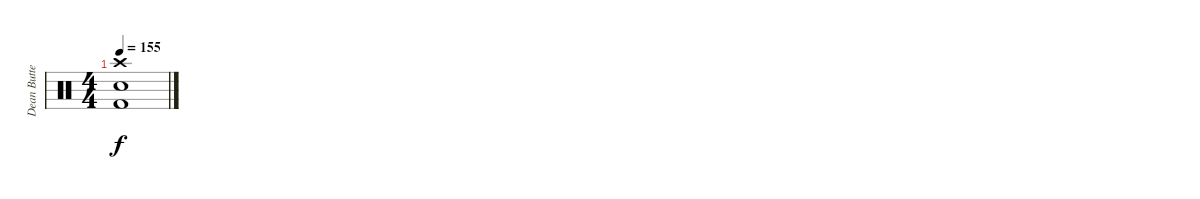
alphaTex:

\track ("Dean Butterworth [Drums]" "Dean Butte") {solo instrument percussion}
\staff {score}
\articulation defaults
\ts (4 4)
\tempo 155
\clef neutral
\ks c
("Crash high (hit)" "Electric Snare (hit)" "Kick (hit) 2").1{dy f}
